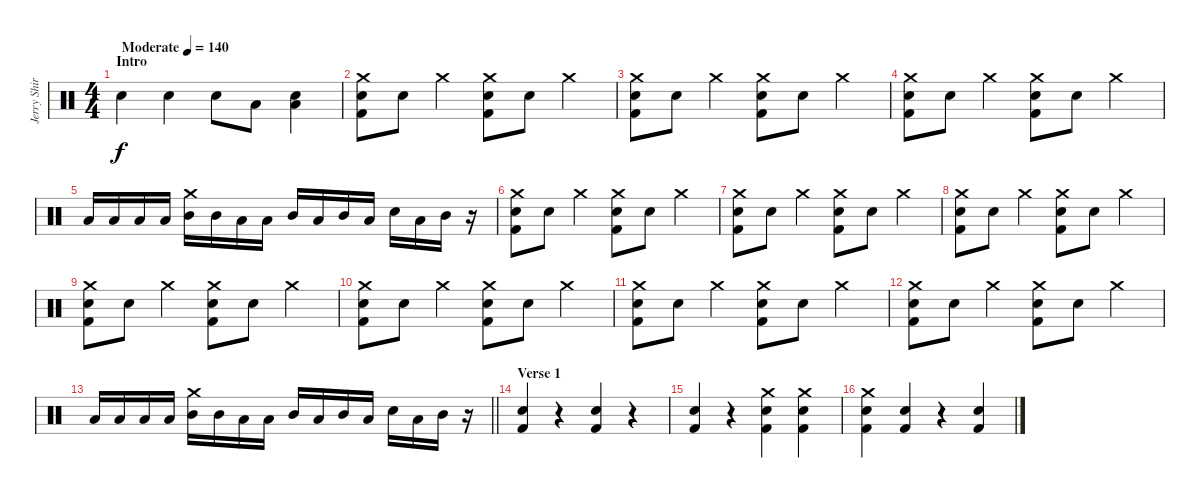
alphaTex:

\track ("Jerry Shirley (Drums)" "Jerry Shir") {instrument percussion bank 255}
\staff {score}
\articulation defaults
\ts (4 4)
\section ("" "Intro")
\tempo (140 "Moderate")
\clef neutral
\ks c "Electric Snare (hit)".4{dy f} "Electric Snare (hit)".4 "Electric Snare (hit)".8 "Low Tom (hit)".8
("Electric Snare (hit)" "Low Tom (hit)").4 |
("Electric Snare (hit)" "Kick (hit) 2" "Crash medium (hit)").8 "Electric Snare (hit)".8 "Crash medium (hit)".4 ("Electric Snare (hit)" "Kick (hit) 2" "Crash medium (hit)").8 "Electric Snare (hit)".8 "Crash medium (hit)".4 |
("Electric Snare (hit)" "Kick (hit) 2" "Crash medium (hit)").8 "Electric Snare (hit)".8 "Crash medium (hit)".4 ("Electric Snare (hit)" "Kick (hit) 2" "Crash medium (hit)").8 "Electric Snare (hit)".8 "Crash medium (hit)".4 |
("Electric Snare (hit)" "Kick (hit) 2" "Crash medium (hit)").8 "Electric Snare (hit)".8 "Crash medium (hit)".4 ("Electric Snare (hit)" "Kick (hit) 2" "Crash medium (hit)").8 "Electric Snare (hit)".8 "Crash medium (hit)".4 |
"Low Tom (hit)".16 "Low Tom (hit)".16 "Low Tom (hit)".16 "Low Tom (hit)".16 ("Mid Tom (hit)" "Crash medium (hit)").16 "Mid Tom (hit)".16 "Low Tom (hit)".16 "Low Tom (hit)".16 "Mid Tom (hit)".16 "Low Tom (hit)".16 "Mid Tom (hit)".16 "Low Tom (hit)".16 "Electric Snare (hit)".16 "Low Tom (hit)".16 "Mid Tom (hit)".16 r.16 |
("Electric Snare (hit)" "Kick (hit) 2" "Crash medium (hit)").8 "Electric Snare (hit)".8 "Crash medium (hit)".4 ("Electric Snare (hit)" "Kick (hit) 2" "Crash medium (hit)").8 "Electric Snare (hit)".8 "Crash medium (hit)".4 |
("Electric Snare (hit)" "Kick (hit) 2" "Crash medium (hit)").8 "Electric Snare (hit)".8 "Crash medium (hit)".4 ("Electric Snare (hit)" "Kick (hit) 2" "Crash medium (hit)").8 "Electric Snare (hit)".8 "Crash medium (hit)".4 |
("Electric Snare (hit)" "Kick (hit) 2" "Crash medium (hit)").8 "Electric Snare (hit)".8 "Crash medium (hit)".4 ("Electric Snare (hit)" "Kick (hit) 2" "Crash medium (hit)").8 "Electric Snare (hit)".8 "Crash medium (hit)".4 |
("Electric Snare (hit)" "Kick (hit) 2" "Crash medium (hit)").8 "Electric Snare (hit)".8 "Crash medium (hit)".4 ("Electric Snare (hit)" "Kick (hit) 2" "Crash medium (hit)").8 "Electric Snare (hit)".8 "Crash medium (hit)".4 |
("Electric Snare (hit)" "Kick (hit) 2" "Crash medium (hit)").8 "Electric Snare (hit)".8 "Crash medium (hit)".4 ("Electric Snare (hit)" "Kick (hit) 2" "Crash medium (hit)").8 "Electric Snare (hit)".8 "Crash medium (hit)".4 |
("Electric Snare (hit)" "Kick (hit) 2" "Crash medium (hit)").8 "Electric Snare (hit)".8 "Crash medium (hit)".4 ("Electric Snare (hit)" "Kick (hit) 2" "Crash medium (hit)").8 "Electric Snare (hit)".8 "Crash medium (hit)".4 |
("Electric Snare (hit)" "Kick (hit) 2" "Crash medium (hit)").8 "Electric Snare (hit)".8 "Crash medium (hit)".4 ("Electric Snare (hit)" "Kick (hit) 2" "Crash medium (hit)").8 "Electric Snare (hit)".8 "Crash medium (hit)".4 |
\barLineRight lightlight "Low Tom (hit)".16 "Low Tom (hit)".16 "Low Tom (hit)".16 "Low Tom (hit)".16
("Mid Tom (hit)" "Crash medium (hit)").16 "Mid Tom (hit)".16 "Low Tom (hit)".16 "Low Tom (hit)".16 "Mid Tom (hit)".16 "Low Tom (hit)".16 "Mid Tom (hit)".16 "Low Tom (hit)".16 "Electric Snare (hit)".16 "Low Tom (hit)".16 "Mid Tom (hit)".16 r.16 |
\section ("" "Verse 1")
("Electric Snare (hit)" "Kick (hit) 2").4{volume 7} r.4 ("Electric Snare (hit)" "Kick (hit) 2").4 r.4 |
("Electric Snare (hit)" "Kick (hit) 2").4 r.4 ("Kick (hit) 2" "Electric Snare (hit)" "Crash medium (hit)").4{volume 16} ("Kick (hit) 2" "Electric Snare (hit)" "Crash medium (hit)").4 |
("Kick (hit) 2" "Electric Snare (hit)" "Crash medium (hit)").4 ("Electric Snare (hit)" "Kick (hit) 2").4{volume 6} r.4 ("Electric Snare (hit)" "Kick (hit) 2").4
